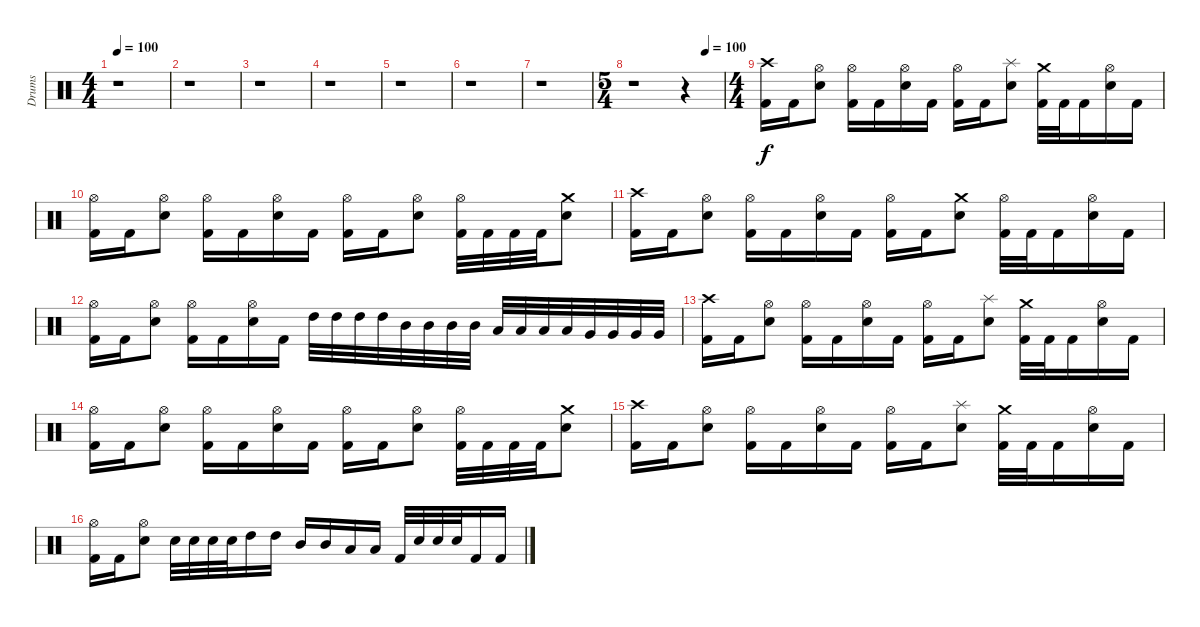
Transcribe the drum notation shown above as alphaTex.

\track ("Drums" "Drums") {instrument percussion}
\staff {score}
\articulation defaults
\ts (4 4)
\tempo 100
\clef neutral
\ks c
r.1{dy f} |
r.1 |
r.1 |
r.1 |
r.1 |
r.1 |
r.1 |
\ts (5 4)
\tempo (100 0.8)
r.1 r.4 |
\ts (4 4)
("Kick (hit) 2" "Crash high (hit)").16 "Kick (hit) 2".16 ("Electric Snare (hit)" "Hi-Hat (open)").8 ("Kick (hit) 2" "Hi-Hat (open)").16 "Kick (hit) 2".16 ("Electric Snare (hit)" "Hi-Hat (open)").16 "Kick (hit) 2".16 ("Kick (hit) 2" "Hi-Hat (open)").16 "Kick (hit) 2".16 ("Electric Snare (hit)" "Splash (hit)").8 ("Kick (hit) 2" "Crash medium (hit)").32 "Kick (hit) 2".32 "Kick (hit) 2".16 ("Electric Snare (hit)" "Hi-Hat (open)").16 "Kick (hit) 2".16 |
("Kick (hit) 2" "Hi-Hat (open)").16 "Kick (hit) 2".16 ("Electric Snare (hit)" "Hi-Hat (open)").8 ("Kick (hit) 2" "Hi-Hat (open)").16 "Kick (hit) 2".16 ("Electric Snare (hit)" "Hi-Hat (open)").16 "Kick (hit) 2".16 ("Kick (hit) 2" "Hi-Hat (open)").16 "Kick (hit) 2".16 ("Electric Snare (hit)" "Hi-Hat (open)").8 ("Kick (hit) 2" "Hi-Hat (open)").32 "Kick (hit) 2".32 "Kick (hit) 2".32 "Kick (hit) 2".32 ("Electric Snare (hit)" "Crash medium (hit)").8 |
("Kick (hit) 2" "Crash high (hit)").16 "Kick (hit) 2".16 ("Electric Snare (hit)" "Hi-Hat (open)").8 ("Kick (hit) 2" "Hi-Hat (open)").16 "Kick (hit) 2".16 ("Electric Snare (hit)" "Hi-Hat (open)").16 "Kick (hit) 2".16 ("Kick (hit) 2" "Hi-Hat (open)").16 "Kick (hit) 2".16 ("Electric Snare (hit)" "Crash medium (hit)").8 ("Kick (hit) 2" "Hi-Hat (open)").32 "Kick (hit) 2".32 "Kick (hit) 2".16 ("Electric Snare (hit)" "Hi-Hat (open)").16 "Kick (hit) 2".16 |
("Kick (hit) 2" "Hi-Hat (open)").16 "Kick (hit) 2".16 ("Electric Snare (hit)" "Hi-Hat (open)").8 ("Kick (hit) 2" "Hi-Hat (open)").16 "Kick (hit) 2".16 ("Electric Snare (hit)" "Hi-Hat (open)").16 "Kick (hit) 2".16 "High Tom (hit)".32 "High Tom (hit)".32 "High Tom (hit)".32 "High Tom (hit)".32 "Mid Tom (hit)".32 "Mid Tom (hit)".32 "Mid Tom (hit)".32 "Mid Tom (hit)".32 "Low Tom (hit)".32 "Low Tom (hit)".32 "Low Tom (hit)".32 "Low Tom (hit)".32 "Very Low Tom (hit)".32 "Very Low Tom (hit)".32 "Very Low Tom (hit)".32 "Very Low Tom (hit)".32 |
("Kick (hit) 2" "Crash high (hit)").16 "Kick (hit) 2".16 ("Electric Snare (hit)" "Hi-Hat (open)").8 ("Kick (hit) 2" "Hi-Hat (open)").16 "Kick (hit) 2".16 ("Electric Snare (hit)" "Hi-Hat (open)").16 "Kick (hit) 2".16 ("Kick (hit) 2" "Hi-Hat (open)").16 "Kick (hit) 2".16 ("Electric Snare (hit)" "Splash (hit)").8 ("Kick (hit) 2" "Crash medium (hit)").32 "Kick (hit) 2".32 "Kick (hit) 2".16 ("Electric Snare (hit)" "Hi-Hat (open)").16 "Kick (hit) 2".16 |
("Kick (hit) 2" "Hi-Hat (open)").16 "Kick (hit) 2".16 ("Electric Snare (hit)" "Hi-Hat (open)").8 ("Kick (hit) 2" "Hi-Hat (open)").16 "Kick (hit) 2".16 ("Electric Snare (hit)" "Hi-Hat (open)").16 "Kick (hit) 2".16 ("Kick (hit) 2" "Hi-Hat (open)").16 "Kick (hit) 2".16 ("Electric Snare (hit)" "Hi-Hat (open)").8 ("Kick (hit) 2" "Hi-Hat (open)").32 "Kick (hit) 2".32 "Kick (hit) 2".32 "Kick (hit) 2".32 ("Electric Snare (hit)" "Crash medium (hit)").8 |
("Kick (hit) 2" "Crash high (hit)").16 "Kick (hit) 2".16 ("Electric Snare (hit)" "Hi-Hat (open)").8 ("Kick (hit) 2" "Hi-Hat (open)").16 "Kick (hit) 2".16 ("Electric Snare (hit)" "Hi-Hat (open)").16 "Kick (hit) 2".16 ("Kick (hit) 2" "Hi-Hat (open)").16 "Kick (hit) 2".16 ("Electric Snare (hit)" "Splash (hit)").8 ("Kick (hit) 2" "Crash medium (hit)").32 "Kick (hit) 2".32 "Kick (hit) 2".16 ("Electric Snare (hit)" "Hi-Hat (open)").16 "Kick (hit) 2".16 |
("Kick (hit) 2" "Hi-Hat (open)").16 "Kick (hit) 2".16 ("Electric Snare (hit)" "Hi-Hat (open)").8 "Electric Snare (hit)".32 "Electric Snare (hit)".32 "Electric Snare (hit)".32 "Electric Snare (hit)".32 "High Tom (hit)".16 "High Tom (hit)".16 "Mid Tom (hit)".16 "Mid Tom (hit)".16 "Low Tom (hit)".16 "Low Tom (hit)".16 "Kick (hit) 2".32 "Electric Snare (hit)".32 "Electric Snare (hit)".32 "Electric Snare (hit)".32 "Kick (hit) 2".16 "Kick (hit) 2".16
